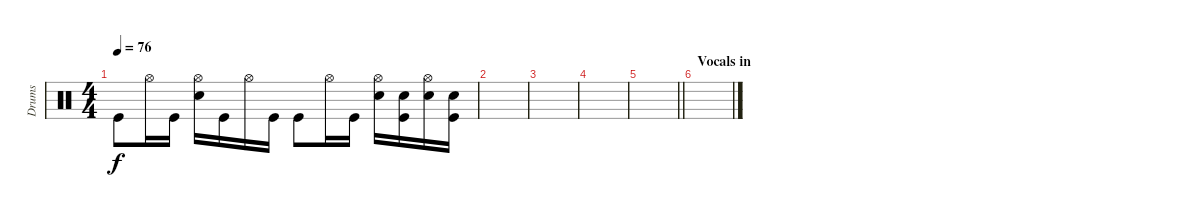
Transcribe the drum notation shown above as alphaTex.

\track ("Drums" "Drums") {instrument percussion}
\staff {score}
\articulation defaults
\ts (4 4)
\tempo 76
\clef neutral
\ks c "Kick (hit)".8{dy f} "Hi-Hat (open)".16 "Kick (hit)".16
("Hi-Hat (open)" "Snare (hit) 2").16 "Kick (hit)".16 "Hi-Hat (open)".16 "Kick (hit)".16 "Kick (hit)".8 "Hi-Hat (open)".16 "Kick (hit)".16 ("Hi-Hat (open)" "Snare (hit) 2").16 ("Snare (hit) 2" "Kick (hit)").16 ("Hi-Hat (open)" "Snare (hit) 2").16 ("Snare (hit) 2" "Kick (hit)").16 |
|
|
|
\barLineRight lightlight
|
\section ("" "Vocals in")
